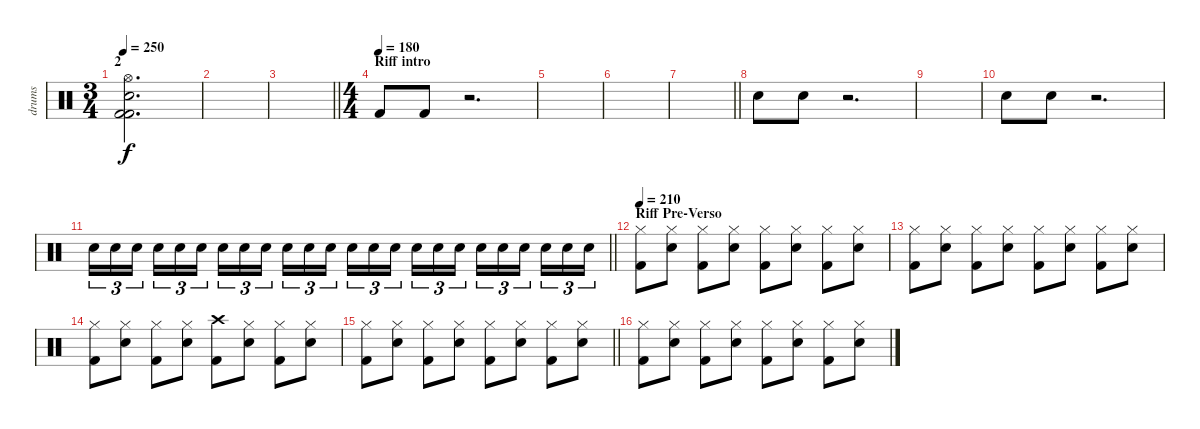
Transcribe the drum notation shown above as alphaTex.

\track ("drums" "drums") {instrument percussion}
\staff {score}
\articulation defaults
\ts (3 4)
\section ("" "2")
\tempo 250
\clef neutral
\ks c
("Hi-Hat (open)" "Electric Snare (hit)" "Kick (hit) 2" "Kick (hit) 2").2{d dy f} |
|
\barLineRight lightlight
|
\ts (4 4)
\section ("" "Riff intro")
\tempo (180)
"Kick (hit) 2".8 "Kick (hit) 2".8 r.2{d} |
|
|
\barLineRight lightlight
|
"Electric Snare (hit)".8 "Electric Snare (hit)".8 r.2{d} |
|
"Electric Snare (hit)".8 "Electric Snare (hit)".8 r.2{d volume 7} |
\barLineRight lightlight "Electric Snare (hit)".16{tu (3 2) volume 16} "Electric Snare (hit)".16{tu (3 2)} "Electric Snare (hit)".16{tu (3 2) beam splitsecondary} "Electric Snare (hit)".16{tu (3 2)} "Electric Snare (hit)".16{tu (3 2)} "Electric Snare (hit)".16{tu (3 2)} "Electric Snare (hit)".16{tu (3 2)} "Electric Snare (hit)".16{tu (3 2)} "Electric Snare (hit)".16{tu (3 2) beam splitsecondary} "Electric Snare (hit)".16{tu (3 2)} "Electric Snare (hit)".16{tu (3 2)} "Electric Snare (hit)".16{tu (3 2)} "Electric Snare (hit)".16{tu (3 2)} "Electric Snare (hit)".16{tu (3 2)} "Electric Snare (hit)".16{tu (3 2) beam splitsecondary} "Electric Snare (hit)".16{tu (3 2)} "Electric Snare (hit)".16{tu (3 2)} "Electric Snare (hit)".16{tu (3 2)} "Electric Snare (hit)".16{tu (3 2)} "Electric Snare (hit)".16{tu (3 2)} "Electric Snare (hit)".16{tu (3 2) beam splitsecondary} "Electric Snare (hit)".16{tu (3 2)} "Electric Snare (hit)".16{tu (3 2)} "Electric Snare (hit)".16{tu (3 2)}
|
\section ("" "Riff Pre-Verso")
\tempo 210
("Hi-Hat (closed)" "Kick (hit) 2").8 ("Hi-Hat (closed)" "Electric Snare (hit)").8 ("Hi-Hat (closed)" "Kick (hit) 2").8 ("Hi-Hat (closed)" "Electric Snare (hit)").8 ("Hi-Hat (closed)" "Kick (hit) 2").8 ("Hi-Hat (closed)" "Electric Snare (hit)").8 ("Hi-Hat (closed)" "Kick (hit) 2").8 ("Hi-Hat (closed)" "Electric Snare (hit)").8 |
("Hi-Hat (closed)" "Kick (hit) 2").8 ("Hi-Hat (closed)" "Electric Snare (hit)").8 ("Hi-Hat (closed)" "Kick (hit) 2").8 ("Hi-Hat (closed)" "Electric Snare (hit)").8 ("Hi-Hat (closed)" "Kick (hit) 2").8 ("Hi-Hat (closed)" "Electric Snare (hit)").8 ("Hi-Hat (closed)" "Kick (hit) 2").8 ("Hi-Hat (closed)" "Electric Snare (hit)").8 |
("Hi-Hat (closed)" "Kick (hit) 2").8 ("Hi-Hat (closed)" "Electric Snare (hit)").8 ("Hi-Hat (closed)" "Kick (hit) 2").8 ("Hi-Hat (closed)" "Electric Snare (hit)").8 ("Crash high (hit)" "Kick (hit) 2").8 ("Hi-Hat (closed)" "Electric Snare (hit)").8 ("Hi-Hat (closed)" "Kick (hit) 2").8 ("Hi-Hat (closed)" "Electric Snare (hit)").8 |
\barLineRight lightlight
("Hi-Hat (closed)" "Kick (hit) 2").8 ("Hi-Hat (closed)" "Electric Snare (hit)").8 ("Hi-Hat (closed)" "Kick (hit) 2").8 ("Hi-Hat (closed)" "Electric Snare (hit)").8 ("Hi-Hat (closed)" "Kick (hit) 2").8 ("Hi-Hat (closed)" "Electric Snare (hit)").8 ("Hi-Hat (closed)" "Kick (hit) 2").8 ("Hi-Hat (closed)" "Electric Snare (hit)").8 |
("Hi-Hat (closed)" "Kick (hit) 2").8 ("Hi-Hat (closed)" "Electric Snare (hit)").8 ("Hi-Hat (closed)" "Kick (hit) 2").8 ("Hi-Hat (closed)" "Electric Snare (hit)").8 ("Hi-Hat (closed)" "Kick (hit) 2").8 ("Hi-Hat (closed)" "Electric Snare (hit)").8 ("Hi-Hat (closed)" "Kick (hit) 2").8 ("Hi-Hat (closed)" "Electric Snare (hit)").8
